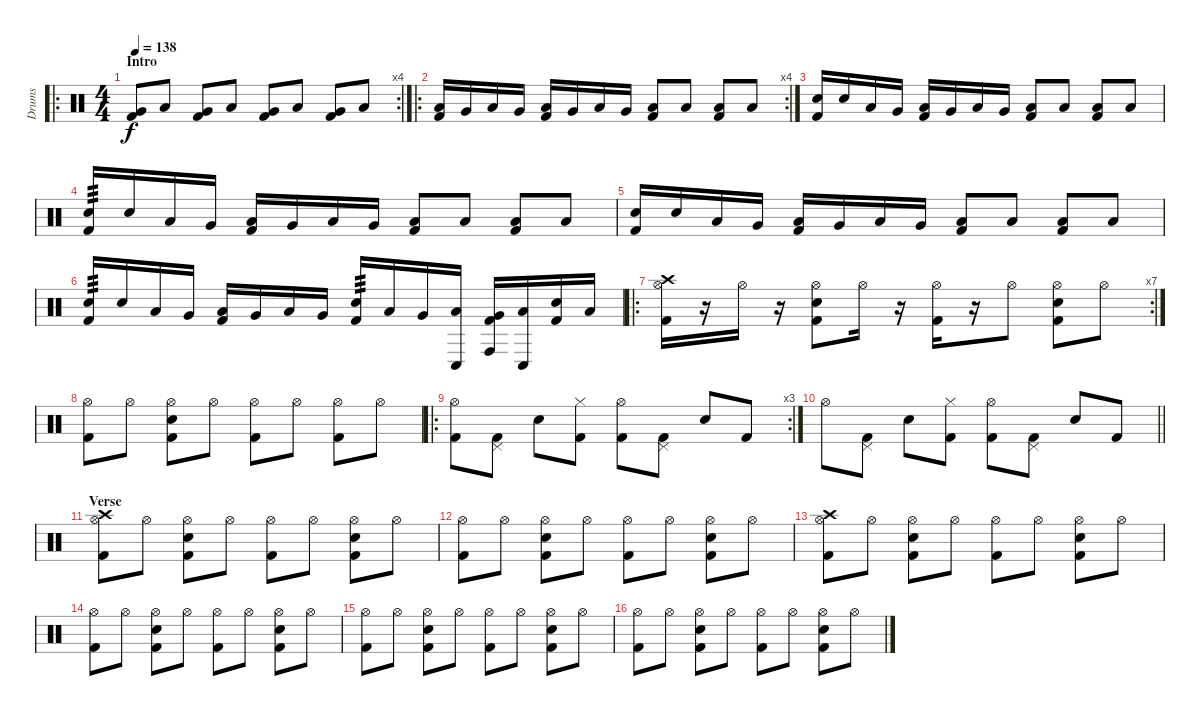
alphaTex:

\track ("Drums" "Drums") {instrument percussion}
\staff {score}
\articulation defaults
\ro
\rc 4
\ts (4 4)
\section ("" "Intro")
\tempo 138
\clef neutral
\ks c
("Very Low Tom (hit)" "Kick (hit) 2").8{dy f} "Low Floor Tom (hit)".8 ("Very Low Tom (hit)" "Kick (hit) 2").8 "Low Floor Tom (hit)".8 ("Very Low Tom (hit)" "Kick (hit) 2").8 "Low Floor Tom (hit)".8 ("Very Low Tom (hit)" "Kick (hit) 2").8 "Low Floor Tom (hit)".8 |
\ro
\rc 4
("Low Floor Tom (hit)" "Kick (hit) 2").16 "Very Low Tom (hit)".16 "Low Floor Tom (hit)".16 "Very Low Tom (hit)".16 ("Low Floor Tom (hit)" "Kick (hit) 2").16 "Very Low Tom (hit)".16 "Low Floor Tom (hit)".16 "Very Low Tom (hit)".16 ("Low Floor Tom (hit)" "Kick (hit) 2").8 "Low Floor Tom (hit)".8 ("Low Floor Tom (hit)" "Kick (hit) 2").8 "Low Floor Tom (hit)".8 |
("Electric Snare (hit)" "Kick (hit) 2").16 "Electric Snare (hit)".16 "Low Floor Tom (hit)".16 "Very Low Tom (hit)".16 ("Low Floor Tom (hit)" "Kick (hit) 2").16 "Very Low Tom (hit)".16 "Low Floor Tom (hit)".16 "Very Low Tom (hit)".16 ("Low Floor Tom (hit)" "Kick (hit) 2").8 "Low Floor Tom (hit)".8 ("Low Floor Tom (hit)" "Kick (hit) 2").8 "Low Floor Tom (hit)".8 |
("Electric Snare (hit)" "Kick (hit) 2").16{tp 3} "Electric Snare (hit)".16 "Low Floor Tom (hit)".16 "Very Low Tom (hit)".16 ("Low Floor Tom (hit)" "Kick (hit) 2").16 "Very Low Tom (hit)".16 "Low Floor Tom (hit)".16 "Very Low Tom (hit)".16 ("Low Floor Tom (hit)" "Kick (hit) 2").8 "Low Floor Tom (hit)".8 ("Low Floor Tom (hit)" "Kick (hit) 2").8 "Low Floor Tom (hit)".8 |
("Electric Snare (hit)" "Kick (hit) 2").16 "Electric Snare (hit)".16 "Low Floor Tom (hit)".16 "Very Low Tom (hit)".16 ("Low Floor Tom (hit)" "Kick (hit) 2").16 "Very Low Tom (hit)".16 "Low Floor Tom (hit)".16 "Very Low Tom (hit)".16 ("Low Floor Tom (hit)" "Kick (hit) 2").8 "Low Floor Tom (hit)".8 ("Low Floor Tom (hit)" "Kick (hit) 2").8 "Low Floor Tom (hit)".8 |
("Electric Snare (hit)" "Kick (hit) 2").16{tp 3} "Electric Snare (hit)".16 "Low Floor Tom (hit)".16 "Very Low Tom (hit)".16 ("Low Floor Tom (hit)" "Kick (hit) 2").16 "Very Low Tom (hit)".16 "Low Floor Tom (hit)".16 "Very Low Tom (hit)".16 ("Electric Snare (hit)" "Kick (hit) 2").16{tp 3} "Low Floor Tom (hit)".16 "Very Low Tom (hit)".16 ("Conga low (hit)" "Low Floor Tom (hit)").16 ("Conga high (hit)" "Very Low Tom (hit)" "Kick (hit) 2").16 ("Conga low (hit)" "Low Floor Tom (hit)").16 ("Electric Snare (hit)" "Kick (hit) 2").16 "Low Floor Tom (hit)".16 |
\ro
\rc 7
("Crash high (hit)" "Hi-Hat (open)" "Kick (hit) 2").16 r.16 "Hi-Hat (open)".16 r.16 ("Electric Snare (hit)" "Hi-Hat (open)" "Kick (hit) 2").8 "Hi-Hat (open)".16 r.16 ("Hi-Hat (open)" "Kick (hit) 2").16 r.16 "Hi-Hat (open)".8 ("Electric Snare (hit)" "Hi-Hat (open)" "Kick (hit) 2").8 "Hi-Hat (open)".8 |
("Hi-Hat (open)" "Kick (hit) 2").8 "Hi-Hat (open)".8 ("Electric Snare (hit)" "Hi-Hat (open)" "Kick (hit) 2").8 "Hi-Hat (open)".8 ("Hi-Hat (open)" "Kick (hit) 2").8 "Hi-Hat (open)".8 ("Hi-Hat (open)" "Kick (hit) 2").8 "Hi-Hat (open)".8 |
\ro
\rc 3
("Hi-Hat (open)" "Kick (hit) 2").8 ("Pedal Hi-Hat (hit)" "Kick (hit) 2").8 "Electric Snare (hit)".8 ("Hi-Hat (closed)" "Kick (hit) 2").8 ("Hi-Hat (open)" "Kick (hit) 2").8 ("Pedal Hi-Hat (hit)" "Kick (hit) 2").8 "Electric Snare (hit)".8 "Kick (hit) 2".8 |
\barLineRight lightlight "Hi-Hat (open)".8
("Pedal Hi-Hat (hit)" "Kick (hit) 2").8 "Electric Snare (hit)".8 ("Hi-Hat (closed)" "Kick (hit) 2").8 ("Hi-Hat (open)" "Kick (hit) 2").8 ("Pedal Hi-Hat (hit)" "Kick (hit) 2").8 "Electric Snare (hit)".8 "Kick (hit) 2".8 |
\section ("" "Verse")
("Crash high (hit)" "Hi-Hat (open)" "Kick (hit) 2").8 "Hi-Hat (open)".8 ("Electric Snare (hit)" "Hi-Hat (open)" "Kick (hit) 2").8 "Hi-Hat (open)".8 ("Hi-Hat (open)" "Kick (hit) 2").8 "Hi-Hat (open)".8 ("Electric Snare (hit)" "Hi-Hat (open)" "Kick (hit) 2").8 "Hi-Hat (open)".8 |
("Hi-Hat (open)" "Kick (hit) 2").8 "Hi-Hat (open)".8 ("Electric Snare (hit)" "Hi-Hat (open)" "Kick (hit) 2").8 "Hi-Hat (open)".8 ("Hi-Hat (open)" "Kick (hit) 2").8 "Hi-Hat (open)".8 ("Electric Snare (hit)" "Hi-Hat (open)" "Kick (hit) 2").8 "Hi-Hat (open)".8 |
("Crash high (hit)" "Hi-Hat (open)" "Kick (hit) 2").8 "Hi-Hat (open)".8 ("Electric Snare (hit)" "Hi-Hat (open)" "Kick (hit) 2").8 "Hi-Hat (open)".8 ("Hi-Hat (open)" "Kick (hit) 2").8 "Hi-Hat (open)".8 ("Electric Snare (hit)" "Hi-Hat (open)" "Kick (hit) 2").8 "Hi-Hat (open)".8 |
("Hi-Hat (open)" "Kick (hit) 2").8 "Hi-Hat (open)".8 ("Electric Snare (hit)" "Hi-Hat (open)" "Kick (hit) 2").8 "Hi-Hat (open)".8 ("Hi-Hat (open)" "Kick (hit) 2").8 "Hi-Hat (open)".8 ("Electric Snare (hit)" "Hi-Hat (open)" "Kick (hit) 2").8 "Hi-Hat (open)".8 |
("Hi-Hat (open)" "Kick (hit) 2").8 "Hi-Hat (open)".8 ("Electric Snare (hit)" "Hi-Hat (open)" "Kick (hit) 2").8 "Hi-Hat (open)".8 ("Hi-Hat (open)" "Kick (hit) 2").8 "Hi-Hat (open)".8 ("Electric Snare (hit)" "Hi-Hat (open)" "Kick (hit) 2").8 "Hi-Hat (open)".8 |
("Hi-Hat (open)" "Kick (hit) 2").8 "Hi-Hat (open)".8 ("Electric Snare (hit)" "Hi-Hat (open)" "Kick (hit) 2").8 "Hi-Hat (open)".8 ("Hi-Hat (open)" "Kick (hit) 2").8 "Hi-Hat (open)".8 ("Electric Snare (hit)" "Hi-Hat (open)" "Kick (hit) 2").8 "Hi-Hat (open)".8
